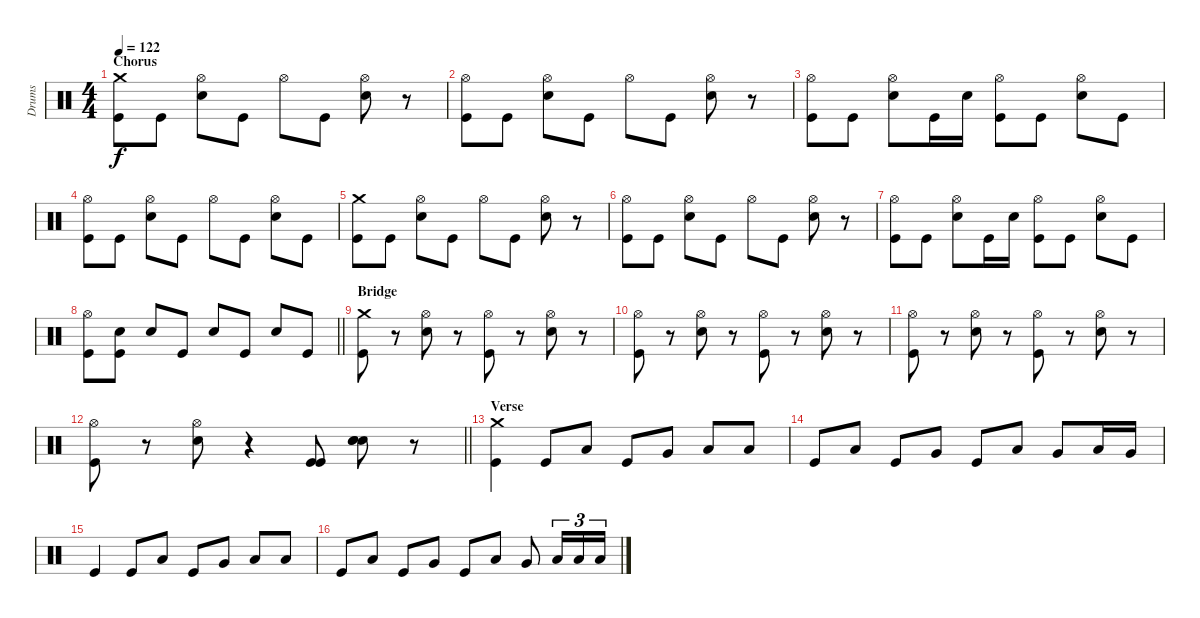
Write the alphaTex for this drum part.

\track ("Drums" "Drums") {instrument percussion}
\staff {score}
\articulation defaults
\ts (4 4)
\section ("" "Chorus")
\tempo 122
\clef neutral
\ks c
("Crash medium (hit)" "Kick (hit)").8{dy f} "Kick (hit)".8 ("Hi-Hat (open)" "Electric Snare (hit)").8 "Kick (hit)".8 "Hi-Hat (open)".8 "Kick (hit)".8 ("Hi-Hat (open)" "Electric Snare (hit)").8 r.8 |
("Hi-Hat (open)" "Kick (hit)").8 "Kick (hit)".8 ("Hi-Hat (open)" "Electric Snare (hit)").8 "Kick (hit)".8 "Hi-Hat (open)".8 "Kick (hit)".8 ("Hi-Hat (open)" "Electric Snare (hit)").8 r.8 |
("Hi-Hat (open)" "Kick (hit)").8 "Kick (hit)".8 ("Hi-Hat (open)" "Electric Snare (hit)").8 "Kick (hit)".16 "Electric Snare (hit)".16 ("Hi-Hat (open)" "Kick (hit)").8 "Kick (hit)".8 ("Hi-Hat (open)" "Electric Snare (hit)").8 "Kick (hit)".8 |
("Hi-Hat (open)" "Kick (hit)").8 "Kick (hit)".8 ("Hi-Hat (open)" "Electric Snare (hit)").8 "Kick (hit)".8 "Hi-Hat (open)".8 "Kick (hit)".8 ("Hi-Hat (open)" "Electric Snare (hit)").8 "Kick (hit)".8 |
("Crash medium (hit)" "Kick (hit)").8 "Kick (hit)".8 ("Hi-Hat (open)" "Electric Snare (hit)").8 "Kick (hit)".8 "Hi-Hat (open)".8 "Kick (hit)".8 ("Hi-Hat (open)" "Electric Snare (hit)").8 r.8 |
("Hi-Hat (open)" "Kick (hit)").8 "Kick (hit)".8 ("Hi-Hat (open)" "Electric Snare (hit)").8 "Kick (hit)".8 "Hi-Hat (open)".8 "Kick (hit)".8 ("Hi-Hat (open)" "Electric Snare (hit)").8 r.8 |
("Hi-Hat (open)" "Kick (hit)").8 "Kick (hit)".8 ("Hi-Hat (open)" "Electric Snare (hit)").8 "Kick (hit)".16 "Electric Snare (hit)".16 ("Hi-Hat (open)" "Kick (hit)").8 "Kick (hit)".8 ("Hi-Hat (open)" "Electric Snare (hit)").8 "Kick (hit)".8 |
\barLineRight lightlight
("Hi-Hat (open)" "Kick (hit)").8 ("Electric Snare (hit)" "Kick (hit)").8 "Electric Snare (hit)".8 "Kick (hit)".8 "Electric Snare (hit)".8 "Kick (hit)".8 "Electric Snare (hit)".8 "Kick (hit)".8 |
\section ("" "Bridge")
("Crash medium (hit)" "Kick (hit)").8 r.8 ("Hi-Hat (open)" "Electric Snare (hit)").8 r.8 ("Hi-Hat (open)" "Kick (hit)").8 r.8 ("Hi-Hat (open)" "Electric Snare (hit)").8 r.8 |
("Hi-Hat (open)" "Kick (hit)").8 r.8 ("Hi-Hat (open)" "Electric Snare (hit)").8 r.8 ("Hi-Hat (open)" "Kick (hit)").8 r.8 ("Hi-Hat (open)" "Electric Snare (hit)").8 r.8 |
("Hi-Hat (open)" "Kick (hit)").8 r.8 ("Hi-Hat (open)" "Electric Snare (hit)").8 r.8 ("Hi-Hat (open)" "Kick (hit)").8 r.8 ("Hi-Hat (open)" "Electric Snare (hit)").8 r.8 |
\barLineRight lightlight
("Hi-Hat (open)" "Kick (hit)").8 r.8 ("Hi-Hat (open)" "Electric Snare (hit)").8 r.4 ("Kick (hit)" "Kick (hit)").8 ("Electric Snare (hit)" "Electric Snare (hit)" "Electric Snare (hit)").8 r.8 |
\section ("" "Verse")
("Crash medium (hit)" "Kick (hit)").4 "Kick (hit)".8 "Low Tom (hit)".8 "Kick (hit)".8 "Very Low Tom (hit)".8 "Low Floor Tom (hit)".8 "Low Tom (hit)".8 |
"Kick (hit)".8 "Low Tom (hit)".8 "Kick (hit)".8 "Very Low Tom (hit)".8 "Kick (hit)".8 "Low Floor Tom (hit)".8 "Very Low Tom (hit)".8 "Low Tom (hit)".16 "Very Low Tom (hit)".16 |
"Kick (hit)".4 "Kick (hit)".8 "Low Tom (hit)".8 "Kick (hit)".8 "Very Low Tom (hit)".8 "Low Floor Tom (hit)".8 "Low Tom (hit)".8 |
"Kick (hit)".8 "Low Tom (hit)".8 "Kick (hit)".8 "Very Low Tom (hit)".8 "Kick (hit)".8 "Low Floor Tom (hit)".8 "Very Low Tom (hit)".8 "Low Tom (hit)".16{tu (3 2)} "Low Tom (hit)".16{tu (3 2)} "Low Tom (hit)".16{tu (3 2)}
